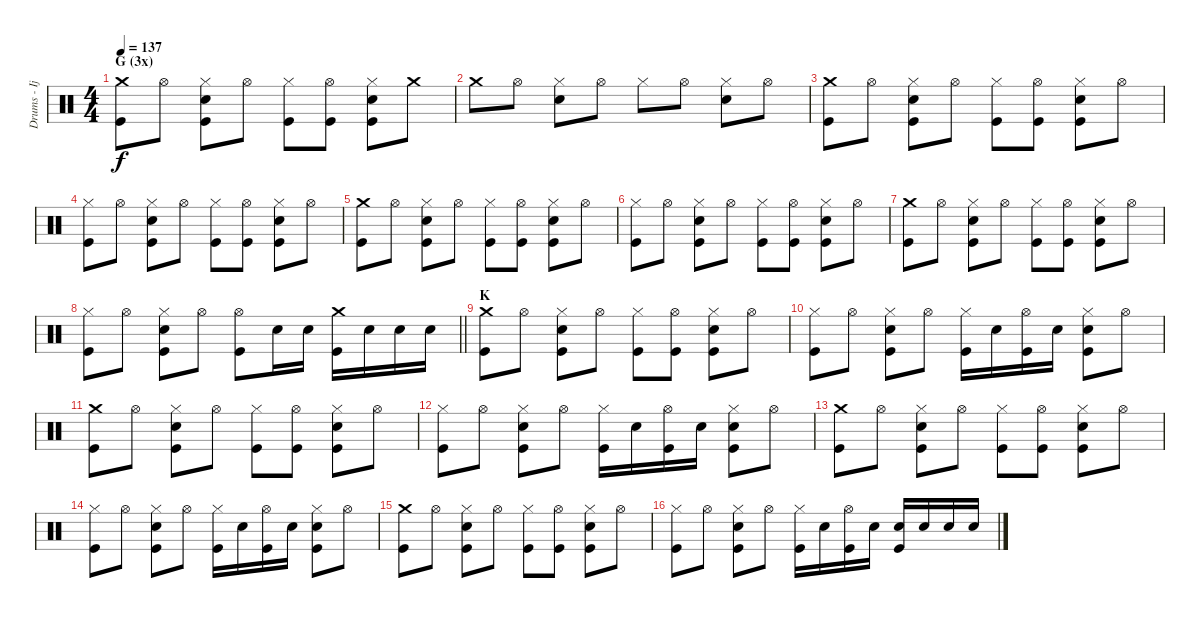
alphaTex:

\track ("Drums - Ijichi" "Drums - Ij") {instrument percussion}
\staff {score}
\articulation defaults
\ts (4 4)
\section ("" "G (3x)")
\tempo 137
\clef neutral
\ks c
("Crash medium (hit)" "Kick (hit)").8{dy f} "Hi-Hat (open)".8 ("Hi-Hat (closed)" "Electric Snare (hit)" "Kick (hit)").8 "Hi-Hat (open)".8 ("Hi-Hat (closed)" "Kick (hit)").8 ("Hi-Hat (open)" "Kick (hit)").8 ("Hi-Hat (closed)" "Electric Snare (hit)" "Kick (hit)").8 "Crash medium (hit)".8 |
"Crash medium (hit)".8 "Hi-Hat (open)".8 ("Hi-Hat (closed)" "Electric Snare (hit)").8 "Hi-Hat (open)".8 "Hi-Hat (closed)".8 "Hi-Hat (open)".8 ("Hi-Hat (closed)" "Electric Snare (hit)").8 "Hi-Hat (open)".8 |
("Crash medium (hit)" "Kick (hit)").8 "Hi-Hat (open)".8 ("Hi-Hat (closed)" "Electric Snare (hit)" "Kick (hit)").8 "Hi-Hat (open)".8 ("Hi-Hat (closed)" "Kick (hit)").8 ("Hi-Hat (open)" "Kick (hit)").8 ("Hi-Hat (closed)" "Electric Snare (hit)" "Kick (hit)").8 "Hi-Hat (open)".8 |
("Hi-Hat (closed)" "Kick (hit)").8 "Hi-Hat (open)".8 ("Hi-Hat (closed)" "Electric Snare (hit)" "Kick (hit)").8 "Hi-Hat (open)".8 ("Hi-Hat (closed)" "Kick (hit)").8 ("Hi-Hat (open)" "Kick (hit)").8 ("Hi-Hat (closed)" "Electric Snare (hit)" "Kick (hit)").8 "Hi-Hat (open)".8 |
("Crash medium (hit)" "Kick (hit)").8 "Hi-Hat (open)".8 ("Hi-Hat (closed)" "Electric Snare (hit)" "Kick (hit)").8 "Hi-Hat (open)".8 ("Hi-Hat (closed)" "Kick (hit)").8 ("Hi-Hat (open)" "Kick (hit)").8 ("Hi-Hat (closed)" "Electric Snare (hit)" "Kick (hit)").8 "Hi-Hat (open)".8 |
("Hi-Hat (closed)" "Kick (hit)").8 "Hi-Hat (open)".8 ("Hi-Hat (closed)" "Electric Snare (hit)" "Kick (hit)").8 "Hi-Hat (open)".8 ("Hi-Hat (closed)" "Kick (hit)").8 ("Hi-Hat (open)" "Kick (hit)").8 ("Hi-Hat (closed)" "Electric Snare (hit)" "Kick (hit)").8 "Hi-Hat (open)".8 |
("Crash medium (hit)" "Kick (hit)").8 "Hi-Hat (open)".8 ("Hi-Hat (closed)" "Electric Snare (hit)" "Kick (hit)").8 "Hi-Hat (open)".8 ("Hi-Hat (closed)" "Kick (hit)").8 ("Hi-Hat (open)" "Kick (hit)").8 ("Hi-Hat (closed)" "Electric Snare (hit)" "Kick (hit)").8 "Hi-Hat (open)".8 |
\barLineRight lightlight
("Hi-Hat (closed)" "Kick (hit)").8 "Hi-Hat (open)".8 ("Hi-Hat (closed)" "Electric Snare (hit)" "Kick (hit)").8 "Hi-Hat (open)".8 ("Hi-Hat (open)" "Kick (hit)").8 "Electric Snare (hit)".16 "Electric Snare (hit)".16 ("Crash medium (hit)" "Kick (hit)").16 "Electric Snare (hit)".16 "Electric Snare (hit)".16 "Electric Snare (hit)".16 |
\section ("" "K")
("Crash medium (hit)" "Kick (hit)").8 "Hi-Hat (open)".8 ("Hi-Hat (closed)" "Electric Snare (hit)" "Kick (hit)").8 "Hi-Hat (open)".8 ("Hi-Hat (closed)" "Kick (hit)").8 ("Hi-Hat (open)" "Kick (hit)").8 ("Hi-Hat (closed)" "Electric Snare (hit)" "Kick (hit)").8 "Hi-Hat (open)".8 |
("Hi-Hat (closed)" "Kick (hit)").8 "Hi-Hat (open)".8 ("Hi-Hat (closed)" "Electric Snare (hit)" "Kick (hit)").8 "Hi-Hat (open)".8 ("Hi-Hat (closed)" "Kick (hit)").16 "Electric Snare (hit)".16 ("Hi-Hat (open)" "Kick (hit)").16 "Electric Snare (hit)".16 ("Hi-Hat (closed)" "Electric Snare (hit)" "Kick (hit)").8 "Hi-Hat (open)".8 |
("Crash medium (hit)" "Kick (hit)").8 "Hi-Hat (open)".8 ("Hi-Hat (closed)" "Electric Snare (hit)" "Kick (hit)").8 "Hi-Hat (open)".8 ("Hi-Hat (closed)" "Kick (hit)").8 ("Hi-Hat (open)" "Kick (hit)").8 ("Hi-Hat (closed)" "Electric Snare (hit)" "Kick (hit)").8 "Hi-Hat (open)".8 |
("Hi-Hat (closed)" "Kick (hit)").8 "Hi-Hat (open)".8 ("Hi-Hat (closed)" "Electric Snare (hit)" "Kick (hit)").8 "Hi-Hat (open)".8 ("Hi-Hat (closed)" "Kick (hit)").16 "Electric Snare (hit)".16 ("Hi-Hat (open)" "Kick (hit)").16 "Electric Snare (hit)".16 ("Hi-Hat (closed)" "Electric Snare (hit)" "Kick (hit)").8 "Hi-Hat (open)".8 |
("Crash medium (hit)" "Kick (hit)").8 "Hi-Hat (open)".8 ("Hi-Hat (closed)" "Electric Snare (hit)" "Kick (hit)").8 "Hi-Hat (open)".8 ("Hi-Hat (closed)" "Kick (hit)").8 ("Hi-Hat (open)" "Kick (hit)").8 ("Hi-Hat (closed)" "Electric Snare (hit)" "Kick (hit)").8 "Hi-Hat (open)".8 |
("Hi-Hat (closed)" "Kick (hit)").8 "Hi-Hat (open)".8 ("Hi-Hat (closed)" "Electric Snare (hit)" "Kick (hit)").8 "Hi-Hat (open)".8 ("Hi-Hat (closed)" "Kick (hit)").16 "Electric Snare (hit)".16 ("Hi-Hat (open)" "Kick (hit)").16 "Electric Snare (hit)".16 ("Hi-Hat (closed)" "Electric Snare (hit)" "Kick (hit)").8 "Hi-Hat (open)".8 |
("Crash medium (hit)" "Kick (hit)").8 "Hi-Hat (open)".8 ("Hi-Hat (closed)" "Electric Snare (hit)" "Kick (hit)").8 "Hi-Hat (open)".8 ("Hi-Hat (closed)" "Kick (hit)").8 ("Hi-Hat (open)" "Kick (hit)").8 ("Hi-Hat (closed)" "Electric Snare (hit)" "Kick (hit)").8 "Hi-Hat (open)".8 |
("Hi-Hat (closed)" "Kick (hit)").8 "Hi-Hat (open)".8 ("Hi-Hat (closed)" "Electric Snare (hit)" "Kick (hit)").8 "Hi-Hat (open)".8 ("Hi-Hat (closed)" "Kick (hit)").16 "Electric Snare (hit)".16 ("Hi-Hat (open)" "Kick (hit)").16 "Electric Snare (hit)".16 ("Electric Snare (hit)" "Kick (hit)").16 "Electric Snare (hit)".16 "Electric Snare (hit)".16 "Electric Snare (hit)".16
